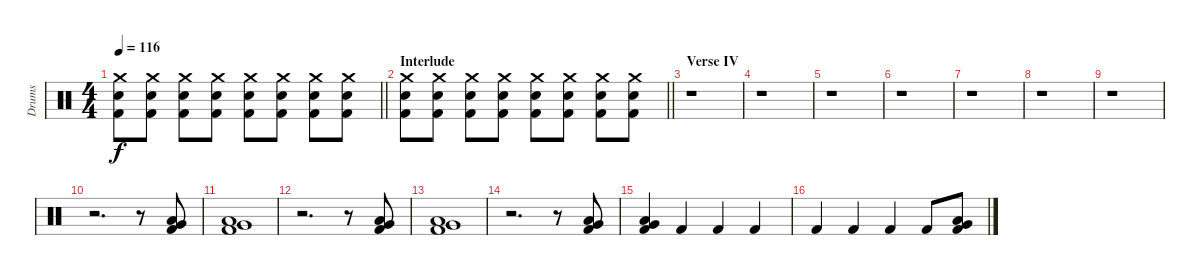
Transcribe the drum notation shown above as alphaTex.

\track ("Drums" "Drums") {instrument percussion}
\staff {score}
\articulation defaults
\ts (4 4)
\tempo 116
\clef neutral
\barLineRight lightlight
\ks c
("Crash medium (hit)" "Electric Snare (hit)" "Kick (hit) 2").8{dy f} ("Crash medium (hit)" "Electric Snare (hit)" "Kick (hit) 2").8 ("Crash medium (hit)" "Electric Snare (hit)" "Kick (hit) 2").8 ("Crash medium (hit)" "Electric Snare (hit)" "Kick (hit) 2").8 ("Crash medium (hit)" "Electric Snare (hit)" "Kick (hit) 2").8 ("Crash medium (hit)" "Electric Snare (hit)" "Kick (hit) 2").8 ("Crash medium (hit)" "Electric Snare (hit)" "Kick (hit) 2").8 ("Crash medium (hit)" "Electric Snare (hit)" "Kick (hit) 2").8 |
\section ("" "Interlude")
\barLineRight lightlight
("Crash medium (hit)" "Electric Snare (hit)" "Kick (hit) 2").8 ("Crash medium (hit)" "Electric Snare (hit)" "Kick (hit) 2").8 ("Crash medium (hit)" "Electric Snare (hit)" "Kick (hit) 2").8 ("Crash medium (hit)" "Electric Snare (hit)" "Kick (hit) 2").8 ("Crash medium (hit)" "Electric Snare (hit)" "Kick (hit) 2").8 ("Crash medium (hit)" "Electric Snare (hit)" "Kick (hit) 2").8 ("Crash medium (hit)" "Electric Snare (hit)" "Kick (hit) 2").8 ("Crash medium (hit)" "Electric Snare (hit)" "Kick (hit) 2").8 |
\section ("" "Verse IV")
r.1 |
r.1 |
r.1 |
r.1 |
r.1 |
r.1 |
r.1 |
r.2{d} r.8 ("Very Low Tom (hit)" "Low Floor Tom (hit)" "Kick (hit) 2").8 |
("Very Low Tom (hit)" "Low Floor Tom (hit)" "Kick (hit) 2").1 |
r.2{d} r.8 ("Very Low Tom (hit)" "Low Floor Tom (hit)" "Kick (hit) 2").8 |
("Very Low Tom (hit)" "Low Floor Tom (hit)" "Kick (hit) 2").1 |
r.2{d} r.8 ("Very Low Tom (hit)" "Low Floor Tom (hit)" "Kick (hit) 2").8 |
("Very Low Tom (hit)" "Low Floor Tom (hit)" "Kick (hit) 2").4 "Kick (hit) 2".4 "Kick (hit) 2".4 "Kick (hit) 2".4 |
"Kick (hit) 2".4 "Kick (hit) 2".4 "Kick (hit) 2".4 "Kick (hit) 2".8 ("Very Low Tom (hit)" "Low Floor Tom (hit)" "Kick (hit) 2").8
